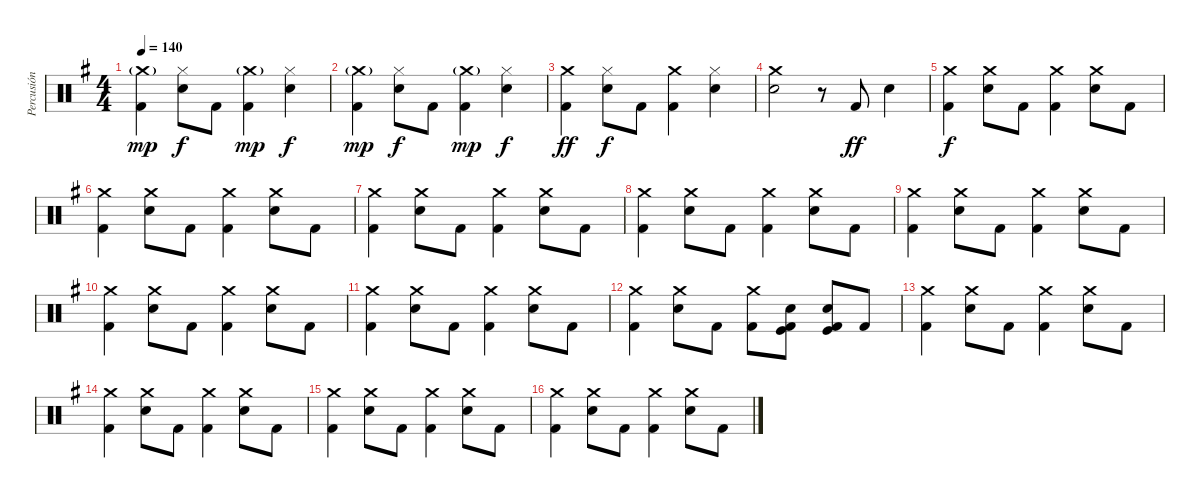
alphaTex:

\track ("Percusión" "Percusión") {instrument percussion}
\staff {score}
\articulation defaults
\ts (4 4)
\tempo 140
\clef neutral
\ks g
("Crash medium (hit)"{g} "Kick (hit) 2").4{dy mp} ("Hi-Hat (closed)" "Snare (hit) 2").8{dy f} "Kick (hit) 2".8 ("Crash medium (hit)"{g} "Kick (hit) 2").4{dy mp} ("Hi-Hat (closed)" "Snare (hit) 2").4{dy f} |
("Crash medium (hit)"{g} "Kick (hit) 2").4{dy mp} ("Hi-Hat (closed)" "Snare (hit) 2").8{dy f} "Kick (hit) 2".8 ("Crash medium (hit)"{g} "Kick (hit) 2").4{dy mp} ("Hi-Hat (closed)" "Snare (hit) 2").4{dy f} |
("Crash medium (hit)" "Kick (hit) 2").4{dy ff} ("Hi-Hat (closed)" "Snare (hit) 2").8{dy f} "Kick (hit) 2".8 ("Crash medium (hit)" "Kick (hit) 2").4 ("Hi-Hat (closed)" "Snare (hit) 2").4 |
("Crash medium (hit)" "Snare (hit) 2").2 r.8 "Kick (hit) 2".8{dy ff} "Snare (hit) 2".4 |
("Crash medium (hit)" "Kick (hit) 2").4{dy f} ("Crash medium (hit)" "Snare (hit) 2").8 "Kick (hit) 2".8 ("Crash medium (hit)" "Kick (hit) 2").4 ("Crash medium (hit)" "Snare (hit) 2").8 "Kick (hit) 2".8 |
("Crash medium (hit)" "Kick (hit) 2").4 ("Crash medium (hit)" "Snare (hit) 2").8 "Kick (hit) 2".8 ("Crash medium (hit)" "Kick (hit) 2").4 ("Crash medium (hit)" "Snare (hit) 2").8 "Kick (hit) 2".8 |
("Crash medium (hit)" "Kick (hit) 2").4 ("Crash medium (hit)" "Snare (hit) 2").8 "Kick (hit) 2".8 ("Crash medium (hit)" "Kick (hit) 2").4 ("Crash medium (hit)" "Snare (hit) 2").8 "Kick (hit) 2".8 |
("Crash medium (hit)" "Kick (hit) 2").4 ("Crash medium (hit)" "Snare (hit) 2").8 "Kick (hit) 2".8 ("Crash medium (hit)" "Kick (hit) 2").4 ("Crash medium (hit)" "Snare (hit) 2").8 "Kick (hit) 2".8 |
("Crash medium (hit)" "Kick (hit) 2").4 ("Crash medium (hit)" "Snare (hit) 2").8 "Kick (hit) 2".8 ("Crash medium (hit)" "Kick (hit) 2").4 ("Crash medium (hit)" "Snare (hit) 2").8 "Kick (hit) 2".8 |
("Crash medium (hit)" "Kick (hit) 2").4 ("Crash medium (hit)" "Snare (hit) 2").8 "Kick (hit) 2".8 ("Crash medium (hit)" "Kick (hit) 2").4 ("Crash medium (hit)" "Snare (hit) 2").8 "Kick (hit) 2".8 |
("Crash medium (hit)" "Kick (hit) 2").4 ("Crash medium (hit)" "Snare (hit) 2").8 "Kick (hit) 2".8 ("Crash medium (hit)" "Kick (hit) 2").4 ("Crash medium (hit)" "Snare (hit) 2").8 "Kick (hit) 2".8 |
("Crash medium (hit)" "Kick (hit) 2").4 ("Crash medium (hit)" "Snare (hit) 2").8 "Kick (hit) 2".8 ("Crash medium (hit)" "Kick (hit) 2").8 ("Snare (hit) 2" "Kick (hit)" "Kick (hit) 2").8 ("Snare (hit) 2" "Kick (hit)" "Kick (hit) 2").8 "Kick (hit) 2".8 |
("Crash medium (hit)" "Kick (hit) 2").4 ("Crash medium (hit)" "Snare (hit) 2").8 "Kick (hit) 2".8 ("Crash medium (hit)" "Kick (hit) 2").4 ("Crash medium (hit)" "Snare (hit) 2").8 "Kick (hit) 2".8 |
("Crash medium (hit)" "Kick (hit) 2").4 ("Crash medium (hit)" "Snare (hit) 2").8 "Kick (hit) 2".8 ("Crash medium (hit)" "Kick (hit) 2").4 ("Crash medium (hit)" "Snare (hit) 2").8 "Kick (hit) 2".8 |
("Crash medium (hit)" "Kick (hit) 2").4 ("Crash medium (hit)" "Snare (hit) 2").8 "Kick (hit) 2".8 ("Crash medium (hit)" "Kick (hit) 2").4 ("Crash medium (hit)" "Snare (hit) 2").8 "Kick (hit) 2".8 |
("Crash medium (hit)" "Kick (hit) 2").4 ("Crash medium (hit)" "Snare (hit) 2").8 "Kick (hit) 2".8 ("Crash medium (hit)" "Kick (hit) 2").4 ("Crash medium (hit)" "Snare (hit) 2").8 "Kick (hit) 2".8
